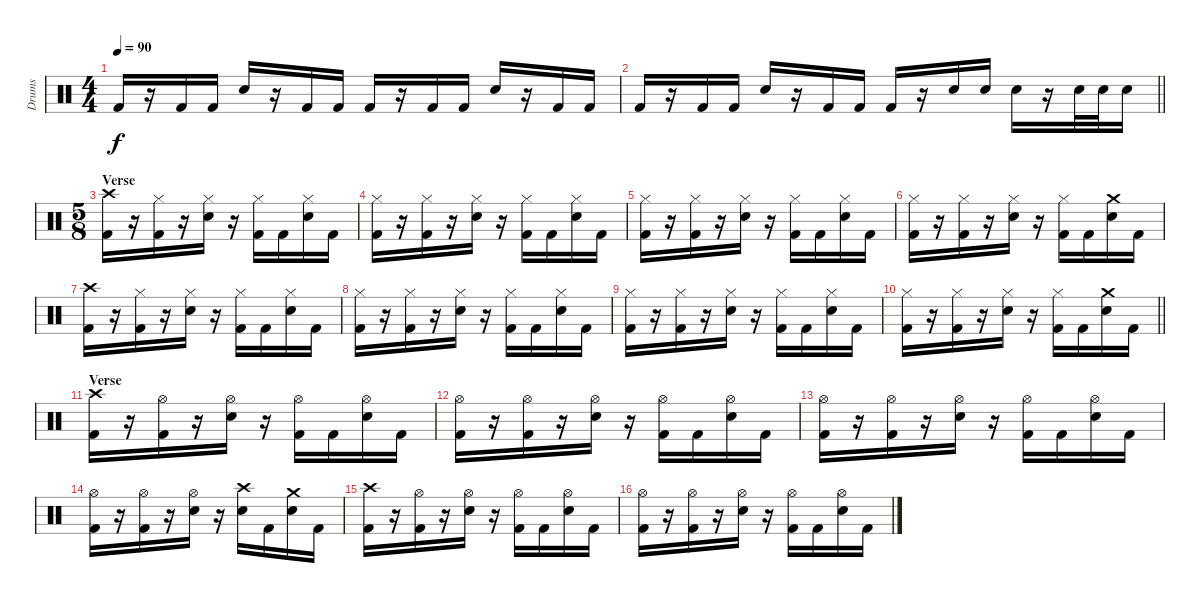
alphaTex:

\track ("Drums" "Drums") {instrument percussion}
\staff {score}
\articulation defaults
\ts (4 4)
\tempo 90
\clef neutral
\ks c "Kick (hit) 2".16{dy f}
r.16 "Kick (hit) 2".16 "Kick (hit) 2".16 "Electric Snare (hit)".16 r.16 "Kick (hit) 2".16 "Kick (hit) 2".16 "Kick (hit) 2".16 r.16 "Kick (hit) 2".16 "Kick (hit) 2".16 "Electric Snare (hit)".16 r.16 "Kick (hit) 2".16 "Kick (hit) 2".16 |
\barLineRight lightlight "Kick (hit) 2".16
r.16 "Kick (hit) 2".16 "Kick (hit) 2".16 "Electric Snare (hit)".16 r.16 "Kick (hit) 2".16 "Kick (hit) 2".16 "Kick (hit) 2".16 r.16 "Electric Snare (hit)".16 "Electric Snare (hit)".16 "Electric Snare (hit)".16 r.16 "Electric Snare (hit)".32 "Electric Snare (hit)".32 "Electric Snare (hit)".16 |
\ts (5 8)
\section ("" "Verse")
("Crash high (hit)" "Kick (hit) 2").16 r.16 ("Hi-Hat (closed)" "Kick (hit) 2").16 r.16 ("Hi-Hat (closed)" "Electric Snare (hit)").16 r.16 ("Hi-Hat (closed)" "Kick (hit) 2").16 "Kick (hit) 2".16 ("Hi-Hat (closed)" "Electric Snare (hit)").16 "Kick (hit) 2".16 |
("Hi-Hat (closed)" "Kick (hit) 2").16 r.16 ("Hi-Hat (closed)" "Kick (hit) 2").16 r.16 ("Hi-Hat (closed)" "Electric Snare (hit)").16 r.16 ("Hi-Hat (closed)" "Kick (hit) 2").16 "Kick (hit) 2".16 ("Hi-Hat (closed)" "Electric Snare (hit)").16 "Kick (hit) 2".16 |
("Hi-Hat (closed)" "Kick (hit) 2").16 r.16 ("Hi-Hat (closed)" "Kick (hit) 2").16 r.16 ("Hi-Hat (closed)" "Electric Snare (hit)").16 r.16 ("Hi-Hat (closed)" "Kick (hit) 2").16 "Kick (hit) 2".16 ("Hi-Hat (closed)" "Electric Snare (hit)").16 "Kick (hit) 2".16 |
("Hi-Hat (closed)" "Kick (hit) 2").16 r.16 ("Hi-Hat (closed)" "Kick (hit) 2").16 r.16 ("Hi-Hat (closed)" "Electric Snare (hit)").16 r.16 ("Hi-Hat (closed)" "Kick (hit) 2").16 "Kick (hit) 2".16 ("Crash medium (hit)" "Electric Snare (hit)").16 "Kick (hit) 2".16 |
("Crash high (hit)" "Kick (hit) 2").16 r.16 ("Hi-Hat (closed)" "Kick (hit) 2").16 r.16 ("Hi-Hat (closed)" "Electric Snare (hit)").16 r.16 ("Hi-Hat (closed)" "Kick (hit) 2").16 "Kick (hit) 2".16 ("Hi-Hat (closed)" "Electric Snare (hit)").16 "Kick (hit) 2".16 |
("Hi-Hat (closed)" "Kick (hit) 2").16 r.16 ("Hi-Hat (closed)" "Kick (hit) 2").16 r.16 ("Hi-Hat (closed)" "Electric Snare (hit)").16 r.16 ("Hi-Hat (closed)" "Kick (hit) 2").16 "Kick (hit) 2".16 ("Hi-Hat (closed)" "Electric Snare (hit)").16 "Kick (hit) 2".16 |
("Hi-Hat (closed)" "Kick (hit) 2").16 r.16 ("Hi-Hat (closed)" "Kick (hit) 2").16 r.16 ("Hi-Hat (closed)" "Electric Snare (hit)").16 r.16 ("Hi-Hat (closed)" "Kick (hit) 2").16 "Kick (hit) 2".16 ("Hi-Hat (closed)" "Electric Snare (hit)").16 "Kick (hit) 2".16 |
\barLineRight lightlight
("Hi-Hat (closed)" "Kick (hit) 2").16 r.16 ("Hi-Hat (closed)" "Kick (hit) 2").16 r.16 ("Hi-Hat (closed)" "Electric Snare (hit)").16 r.16 ("Hi-Hat (closed)" "Kick (hit) 2").16 "Kick (hit) 2".16 ("Crash medium (hit)" "Electric Snare (hit)").16 "Kick (hit) 2".16 |
\section ("" "Verse")
("Crash high (hit)" "Kick (hit) 2").16 r.16 ("Hi-Hat (open)" "Kick (hit) 2").16 r.16 ("Hi-Hat (open)" "Electric Snare (hit)").16 r.16 ("Hi-Hat (open)" "Kick (hit) 2").16 "Kick (hit) 2".16 ("Hi-Hat (open)" "Electric Snare (hit)").16 "Kick (hit) 2".16 |
("Hi-Hat (open)" "Kick (hit) 2").16 r.16 ("Hi-Hat (open)" "Kick (hit) 2").16 r.16 ("Hi-Hat (open)" "Electric Snare (hit)").16 r.16 ("Hi-Hat (open)" "Kick (hit) 2").16 "Kick (hit) 2".16 ("Hi-Hat (open)" "Electric Snare (hit)").16 "Kick (hit) 2".16 |
("Hi-Hat (open)" "Kick (hit) 2").16 r.16 ("Hi-Hat (open)" "Kick (hit) 2").16 r.16 ("Hi-Hat (open)" "Electric Snare (hit)").16 r.16 ("Hi-Hat (open)" "Kick (hit) 2").16 "Kick (hit) 2".16 ("Hi-Hat (open)" "Electric Snare (hit)").16 "Kick (hit) 2".16 |
("Hi-Hat (open)" "Kick (hit) 2").16 r.16 ("Hi-Hat (open)" "Kick (hit) 2").16 r.16 ("Hi-Hat (open)" "Electric Snare (hit)").16 r.16 ("Crash high (hit)" "Electric Snare (hit)").16 "Kick (hit) 2".16 ("Crash medium (hit)" "Electric Snare (hit)").16 "Kick (hit) 2".16 |
("Crash high (hit)" "Kick (hit) 2").16 r.16 ("Hi-Hat (open)" "Kick (hit) 2").16 r.16 ("Hi-Hat (open)" "Electric Snare (hit)").16 r.16 ("Hi-Hat (open)" "Kick (hit) 2").16 "Kick (hit) 2".16 ("Hi-Hat (open)" "Electric Snare (hit)").16 "Kick (hit) 2".16 |
("Hi-Hat (open)" "Kick (hit) 2").16 r.16 ("Hi-Hat (open)" "Kick (hit) 2").16 r.16 ("Hi-Hat (open)" "Electric Snare (hit)").16 r.16 ("Hi-Hat (open)" "Kick (hit) 2").16 "Kick (hit) 2".16 ("Hi-Hat (open)" "Electric Snare (hit)").16 "Kick (hit) 2".16
